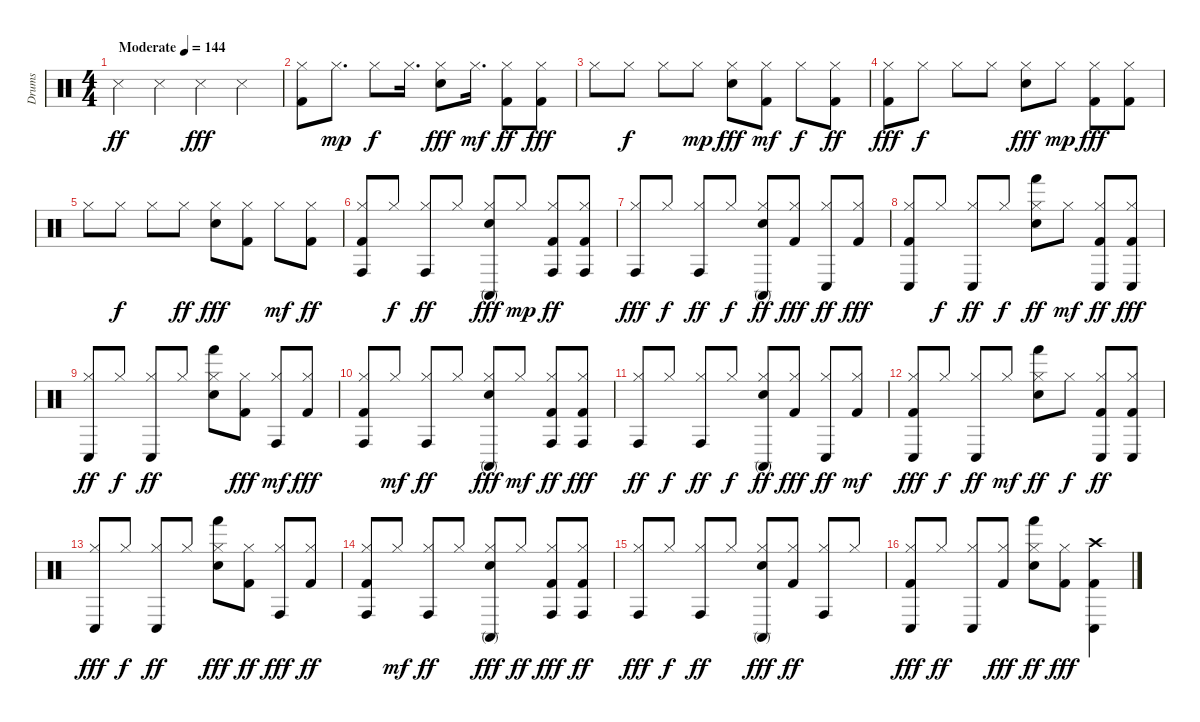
\track ("Drums" "Drums") {instrument percussion}
\staff {score}
\articulation defaults
\ts (4 4)
\tempo (144 "Moderate")
\clef neutral
\ks c "Snare (side stick) 3".4{dy ff} "Snare (side stick) 3".4 "Snare (side stick) 3".4{dy fff} "Snare (side stick) 3".4
|
("Kick (hit) 2" "Hi-Hat (closed)").8 "Hi-Hat (closed)".8{d dy mp} "Hi-Hat (closed)".8{dy f} "Hi-Hat (closed)".16{d} ("Snare (hit) 2" "Hi-Hat (closed)").8{dy fff} "Hi-Hat (closed)".16{d dy mf} ("Kick (hit) 2" "Hi-Hat (closed)").8{dy ff} ("Kick (hit) 2" "Hi-Hat (closed)").8{dy fff} |
"Hi-Hat (closed)".8 "Hi-Hat (closed)".8{dy f} "Hi-Hat (closed)".8 "Hi-Hat (closed)".8{dy mp} ("Snare (hit) 2" "Hi-Hat (closed)").8{dy fff} ("Kick (hit) 2" "Hi-Hat (closed)").8{dy mf} "Hi-Hat (closed)".8{dy f} ("Kick (hit) 2" "Hi-Hat (closed)").8{dy ff} |
("Kick (hit) 2" "Hi-Hat (closed)").8{dy fff} "Hi-Hat (closed)".8{dy f} "Hi-Hat (closed)".8 "Hi-Hat (closed)".8 ("Snare (hit) 2" "Hi-Hat (closed)").8{dy fff} "Hi-Hat (closed)".8{dy mp} ("Kick (hit) 2" "Hi-Hat (closed)").8{dy fff} ("Kick (hit) 2" "Hi-Hat (closed)").8 |
"Hi-Hat (closed)".8 "Hi-Hat (closed)".8{dy f} "Hi-Hat (closed)".8 "Hi-Hat (closed)".8{dy ff} ("Snare (hit) 2" "Hi-Hat (closed)").8{dy fff} ("Kick (hit) 2" "Hi-Hat (closed)").8 "Hi-Hat (closed)".8{dy mf} ("Kick (hit) 2" "Hi-Hat (closed)").8{dy ff} |
("Conga high (hit)" "Kick (hit) 2" "Hi-Hat (closed)").8 "Hi-Hat (closed)".8{dy f} ("Conga high (hit)" "Hi-Hat (closed)").8{dy ff} "Hi-Hat (closed)".8 ("Conga high (mute)" "Snare (hit) 2" "Hi-Hat (closed)").8{dy fff} "Hi-Hat (closed)".8{dy mp} ("Conga high (hit)" "Kick (hit) 2" "Hi-Hat (closed)").8{dy ff} ("Conga high (hit)" "Kick (hit) 2" "Hi-Hat (closed)").8 |
("Conga high (hit)" "Hi-Hat (closed)").8{dy fff} "Hi-Hat (closed)".8{dy f} ("Conga high (hit)" "Hi-Hat (closed)").8{dy ff} "Hi-Hat (closed)".8{dy f} ("Conga high (mute)" "Snare (hit) 2" "Hi-Hat (closed)").8{dy ff} ("Kick (hit) 2" "Hi-Hat (closed)").8{dy fff} ("Conga low (hit)" "Hi-Hat (closed)").8{dy ff} ("Kick (hit) 2" "Hi-Hat (closed)").8{dy fff} |
("Conga low (hit)" "Kick (hit) 2" "Hi-Hat (closed)").8 "Hi-Hat (closed)".8{dy f} ("Conga low (hit)" "Hi-Hat (closed)").8{dy ff} "Hi-Hat (closed)".8{dy f} ("Hand (hit)" "Snare (hit) 2" "Hi-Hat (closed)").8{dy ff} "Hi-Hat (closed)".8{dy mf} ("Conga low (hit)" "Kick (hit) 2" "Hi-Hat (closed)").8{dy ff} ("Conga low (hit)" "Kick (hit) 2" "Hi-Hat (closed)").8{dy fff} |
("Conga low (hit)" "Hi-Hat (closed)").8{dy ff} "Hi-Hat (closed)".8{dy f} ("Conga low (hit)" "Hi-Hat (closed)").8{dy ff} "Hi-Hat (closed)".8 ("Hand (hit)" "Snare (hit) 2" "Hi-Hat (closed)").8 ("Kick (hit) 2" "Hi-Hat (closed)").8{dy fff} ("Conga high (hit)" "Hi-Hat (closed)").8{dy mf} ("Kick (hit) 2" "Hi-Hat (closed)").8{dy fff} |
("Conga high (hit)" "Kick (hit) 2" "Hi-Hat (closed)").8 "Hi-Hat (closed)".8{dy mf} ("Conga high (hit)" "Hi-Hat (closed)").8{dy ff} "Hi-Hat (closed)".8 ("Conga high (mute)" "Snare (hit) 2" "Hi-Hat (closed)").8{dy fff} "Hi-Hat (closed)".8{dy mf} ("Conga high (hit)" "Kick (hit) 2" "Hi-Hat (closed)").8{dy ff} ("Conga high (hit)" "Kick (hit) 2" "Hi-Hat (closed)").8{dy fff} |
("Conga high (hit)" "Hi-Hat (closed)").8{dy ff} "Hi-Hat (closed)".8{dy f} ("Conga high (hit)" "Hi-Hat (closed)").8{dy ff} "Hi-Hat (closed)".8{dy f} ("Conga high (mute)" "Snare (hit) 2" "Hi-Hat (closed)").8{dy ff} ("Kick (hit) 2" "Hi-Hat (closed)").8{dy fff} ("Conga low (hit)" "Hi-Hat (closed)").8{dy ff} ("Kick (hit) 2" "Hi-Hat (closed)").8{dy mf} |
("Conga low (hit)" "Kick (hit) 2" "Hi-Hat (closed)").8{dy fff} "Hi-Hat (closed)".8{dy f} ("Conga low (hit)" "Hi-Hat (closed)").8{dy ff} "Hi-Hat (closed)".8{dy mf} ("Hand (hit)" "Snare (hit) 2" "Hi-Hat (closed)").8{dy ff} "Hi-Hat (closed)".8{dy f} ("Conga low (hit)" "Kick (hit) 2" "Hi-Hat (closed)").8{dy ff} ("Conga low (hit)" "Kick (hit) 2" "Hi-Hat (closed)").8 |
("Conga low (hit)" "Hi-Hat (closed)").8{dy fff} "Hi-Hat (closed)".8{dy f} ("Conga low (hit)" "Hi-Hat (closed)").8{dy ff} "Hi-Hat (closed)".8 ("Hand (hit)" "Snare (hit) 2" "Hi-Hat (closed)").8{dy fff} ("Kick (hit) 2" "Hi-Hat (closed)").8{dy ff} ("Conga high (hit)" "Hi-Hat (closed)").8{dy fff} ("Kick (hit) 2" "Hi-Hat (closed)").8{dy ff} |
("Conga high (hit)" "Kick (hit) 2" "Hi-Hat (closed)").8 "Hi-Hat (closed)".8{dy mf} ("Conga high (hit)" "Hi-Hat (closed)").8{dy ff} "Hi-Hat (closed)".8 ("Conga high (mute)" "Snare (hit) 2" "Hi-Hat (closed)").8{dy fff} "Hi-Hat (closed)".8{dy ff} ("Conga high (hit)" "Kick (hit) 2" "Hi-Hat (closed)").8{dy fff} ("Conga high (hit)" "Kick (hit) 2" "Hi-Hat (closed)").8{dy ff} |
("Conga high (hit)" "Hi-Hat (closed)").8{dy fff} "Hi-Hat (closed)".8{dy f} ("Conga high (hit)" "Hi-Hat (closed)").8{dy ff} "Hi-Hat (closed)".8 ("Conga high (mute)" "Snare (hit) 2" "Hi-Hat (closed)").8{dy fff} ("Kick (hit) 2" "Hi-Hat (closed)").8{dy ff} ("Conga high (hit)" "Hi-Hat (closed)").8 "Hi-Hat (closed)".8 |
("Conga low (hit)" "Kick (hit) 2" "Hi-Hat (closed)").8{dy fff} "Hi-Hat (closed)".8{dy ff} ("Conga low (hit)" "Hi-Hat (closed)").8 ("Kick (hit) 2" "Hi-Hat (closed)").8{dy fff} ("Hand (hit)" "Snare (hit) 2" "Hi-Hat (closed)").8{dy ff} ("Kick (hit) 2" "Hi-Hat (closed)").8{dy fff} ("Conga low (hit)" "Kick (hit) 2" "Crash high (hit)").4
